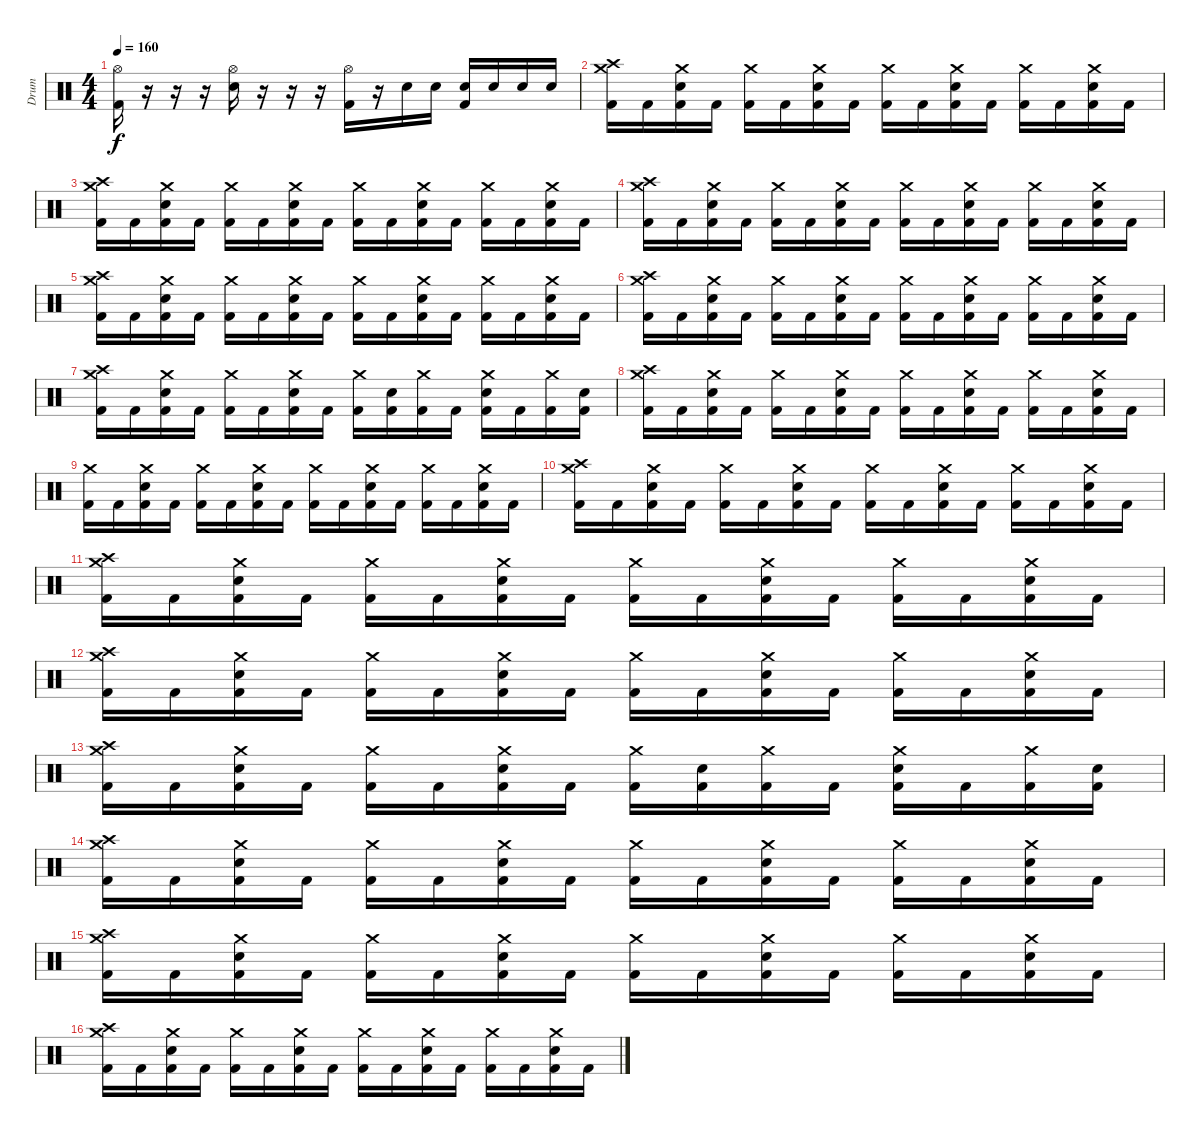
\track ("Drum" "Drum") {instrument percussion}
\staff {score}
\articulation defaults
\ts (4 4)
\tempo 160
\clef neutral
\ks c
("Hi-Hat (open)" "Kick (hit) 2").16{dy f} r.16 r.16 r.16 ("Hi-Hat (open)" "Electric Snare (hit)").16 r.16 r.16 r.16 ("Hi-Hat (open)" "Kick (hit) 2").16 r.16 "Electric Snare (hit)".16 "Electric Snare (hit)".16 ("Kick (hit) 2" "Electric Snare (hit)").16 "Electric Snare (hit)".16 "Electric Snare (hit)".16 "Electric Snare (hit)".16 |
("Crash high (hit)" "Crash medium (hit)" "Kick (hit) 2").16 "Kick (hit) 2".16 ("Crash medium (hit)" "Kick (hit) 2" "Electric Snare (hit)").16 "Kick (hit) 2".16 ("Crash medium (hit)" "Kick (hit) 2").16 "Kick (hit) 2".16 ("Crash medium (hit)" "Kick (hit) 2" "Electric Snare (hit)").16 "Kick (hit) 2".16 ("Crash medium (hit)" "Kick (hit) 2").16 "Kick (hit) 2".16 ("Crash medium (hit)" "Kick (hit) 2" "Electric Snare (hit)").16 "Kick (hit) 2".16 ("Crash medium (hit)" "Kick (hit) 2").16 "Kick (hit) 2".16 ("Crash medium (hit)" "Kick (hit) 2" "Electric Snare (hit)").16 "Kick (hit) 2".16 |
("Crash high (hit)" "Crash medium (hit)" "Kick (hit) 2").16 "Kick (hit) 2".16 ("Crash medium (hit)" "Kick (hit) 2" "Electric Snare (hit)").16 "Kick (hit) 2".16 ("Crash medium (hit)" "Kick (hit) 2").16 "Kick (hit) 2".16 ("Crash medium (hit)" "Kick (hit) 2" "Electric Snare (hit)").16 "Kick (hit) 2".16 ("Crash medium (hit)" "Kick (hit) 2").16 "Kick (hit) 2".16 ("Crash medium (hit)" "Kick (hit) 2" "Electric Snare (hit)").16 "Kick (hit) 2".16 ("Crash medium (hit)" "Kick (hit) 2").16 "Kick (hit) 2".16 ("Crash medium (hit)" "Kick (hit) 2" "Electric Snare (hit)").16 "Kick (hit) 2".16 |
("Crash high (hit)" "Crash medium (hit)" "Kick (hit) 2").16 "Kick (hit) 2".16 ("Crash medium (hit)" "Kick (hit) 2" "Electric Snare (hit)").16 "Kick (hit) 2".16 ("Crash medium (hit)" "Kick (hit) 2").16 "Kick (hit) 2".16 ("Crash medium (hit)" "Kick (hit) 2" "Electric Snare (hit)").16 "Kick (hit) 2".16 ("Crash medium (hit)" "Kick (hit) 2").16 "Kick (hit) 2".16 ("Crash medium (hit)" "Kick (hit) 2" "Electric Snare (hit)").16 "Kick (hit) 2".16 ("Crash medium (hit)" "Kick (hit) 2").16 "Kick (hit) 2".16 ("Crash medium (hit)" "Kick (hit) 2" "Electric Snare (hit)").16 "Kick (hit) 2".16 |
("Crash high (hit)" "Crash medium (hit)" "Kick (hit) 2").16 "Kick (hit) 2".16 ("Crash medium (hit)" "Kick (hit) 2" "Electric Snare (hit)").16 "Kick (hit) 2".16 ("Crash medium (hit)" "Kick (hit) 2").16 "Kick (hit) 2".16 ("Crash medium (hit)" "Kick (hit) 2" "Electric Snare (hit)").16 "Kick (hit) 2".16 ("Crash medium (hit)" "Kick (hit) 2").16 "Kick (hit) 2".16 ("Crash medium (hit)" "Kick (hit) 2" "Electric Snare (hit)").16 "Kick (hit) 2".16 ("Crash medium (hit)" "Kick (hit) 2").16 "Kick (hit) 2".16 ("Crash medium (hit)" "Kick (hit) 2" "Electric Snare (hit)").16 "Kick (hit) 2".16 |
("Crash high (hit)" "Crash medium (hit)" "Kick (hit) 2").16 "Kick (hit) 2".16 ("Crash medium (hit)" "Kick (hit) 2" "Electric Snare (hit)").16 "Kick (hit) 2".16 ("Crash medium (hit)" "Kick (hit) 2").16 "Kick (hit) 2".16 ("Crash medium (hit)" "Kick (hit) 2" "Electric Snare (hit)").16 "Kick (hit) 2".16 ("Crash medium (hit)" "Kick (hit) 2").16 "Kick (hit) 2".16 ("Crash medium (hit)" "Kick (hit) 2" "Electric Snare (hit)").16 "Kick (hit) 2".16 ("Crash medium (hit)" "Kick (hit) 2").16 "Kick (hit) 2".16 ("Crash medium (hit)" "Kick (hit) 2" "Electric Snare (hit)").16 "Kick (hit) 2".16 |
("Crash high (hit)" "Crash medium (hit)" "Kick (hit) 2").16 "Kick (hit) 2".16 ("Crash medium (hit)" "Kick (hit) 2" "Electric Snare (hit)").16 "Kick (hit) 2".16 ("Crash medium (hit)" "Kick (hit) 2").16 "Kick (hit) 2".16 ("Crash medium (hit)" "Kick (hit) 2" "Electric Snare (hit)").16 "Kick (hit) 2".16 ("Crash medium (hit)" "Kick (hit) 2").16 ("Kick (hit) 2" "Electric Snare (hit)").16 ("Crash medium (hit)" "Kick (hit) 2").16 "Kick (hit) 2".16 ("Crash medium (hit)" "Kick (hit) 2" "Electric Snare (hit)").16 "Kick (hit) 2".16 ("Crash medium (hit)" "Kick (hit) 2").16 ("Kick (hit) 2" "Electric Snare (hit)").16 |
("Crash high (hit)" "Crash medium (hit)" "Kick (hit) 2").16 "Kick (hit) 2".16 ("Crash medium (hit)" "Kick (hit) 2" "Electric Snare (hit)").16 "Kick (hit) 2".16 ("Crash medium (hit)" "Kick (hit) 2").16 "Kick (hit) 2".16 ("Crash medium (hit)" "Kick (hit) 2" "Electric Snare (hit)").16 "Kick (hit) 2".16 ("Crash medium (hit)" "Kick (hit) 2").16 "Kick (hit) 2".16 ("Crash medium (hit)" "Kick (hit) 2" "Electric Snare (hit)").16 "Kick (hit) 2".16 ("Crash medium (hit)" "Kick (hit) 2").16 "Kick (hit) 2".16 ("Crash medium (hit)" "Kick (hit) 2" "Electric Snare (hit)").16 "Kick (hit) 2".16 |
("Crash medium (hit)" "Kick (hit) 2").16 "Kick (hit) 2".16 ("Crash medium (hit)" "Kick (hit) 2" "Electric Snare (hit)").16 "Kick (hit) 2".16 ("Crash medium (hit)" "Kick (hit) 2").16 "Kick (hit) 2".16 ("Crash medium (hit)" "Kick (hit) 2" "Electric Snare (hit)").16 "Kick (hit) 2".16 ("Crash medium (hit)" "Kick (hit) 2").16 "Kick (hit) 2".16 ("Crash medium (hit)" "Kick (hit) 2" "Electric Snare (hit)").16 "Kick (hit) 2".16 ("Crash medium (hit)" "Kick (hit) 2").16 "Kick (hit) 2".16 ("Crash medium (hit)" "Kick (hit) 2" "Electric Snare (hit)").16 "Kick (hit) 2".16 |
("Crash high (hit)" "Crash medium (hit)" "Kick (hit) 2").16 "Kick (hit) 2".16 ("Crash medium (hit)" "Kick (hit) 2" "Electric Snare (hit)").16 "Kick (hit) 2".16 ("Crash medium (hit)" "Kick (hit) 2").16 "Kick (hit) 2".16 ("Crash medium (hit)" "Kick (hit) 2" "Electric Snare (hit)").16 "Kick (hit) 2".16 ("Crash medium (hit)" "Kick (hit) 2").16 "Kick (hit) 2".16 ("Crash medium (hit)" "Kick (hit) 2" "Electric Snare (hit)").16 "Kick (hit) 2".16 ("Crash medium (hit)" "Kick (hit) 2").16 "Kick (hit) 2".16 ("Crash medium (hit)" "Kick (hit) 2" "Electric Snare (hit)").16 "Kick (hit) 2".16 |
("Crash high (hit)" "Crash medium (hit)" "Kick (hit) 2").16 "Kick (hit) 2".16 ("Crash medium (hit)" "Kick (hit) 2" "Electric Snare (hit)").16 "Kick (hit) 2".16 ("Crash medium (hit)" "Kick (hit) 2").16 "Kick (hit) 2".16 ("Crash medium (hit)" "Kick (hit) 2" "Electric Snare (hit)").16 "Kick (hit) 2".16 ("Crash medium (hit)" "Kick (hit) 2").16 "Kick (hit) 2".16 ("Crash medium (hit)" "Kick (hit) 2" "Electric Snare (hit)").16 "Kick (hit) 2".16 ("Crash medium (hit)" "Kick (hit) 2").16 "Kick (hit) 2".16 ("Crash medium (hit)" "Kick (hit) 2" "Electric Snare (hit)").16 "Kick (hit) 2".16 |
("Crash high (hit)" "Crash medium (hit)" "Kick (hit) 2").16 "Kick (hit) 2".16 ("Crash medium (hit)" "Kick (hit) 2" "Electric Snare (hit)").16 "Kick (hit) 2".16 ("Crash medium (hit)" "Kick (hit) 2").16 "Kick (hit) 2".16 ("Crash medium (hit)" "Kick (hit) 2" "Electric Snare (hit)").16 "Kick (hit) 2".16 ("Crash medium (hit)" "Kick (hit) 2").16 "Kick (hit) 2".16 ("Crash medium (hit)" "Kick (hit) 2" "Electric Snare (hit)").16 "Kick (hit) 2".16 ("Crash medium (hit)" "Kick (hit) 2").16 "Kick (hit) 2".16 ("Crash medium (hit)" "Kick (hit) 2" "Electric Snare (hit)").16 "Kick (hit) 2".16 |
("Crash high (hit)" "Crash medium (hit)" "Kick (hit) 2").16 "Kick (hit) 2".16 ("Crash medium (hit)" "Kick (hit) 2" "Electric Snare (hit)").16 "Kick (hit) 2".16 ("Crash medium (hit)" "Kick (hit) 2").16 "Kick (hit) 2".16 ("Crash medium (hit)" "Kick (hit) 2" "Electric Snare (hit)").16 "Kick (hit) 2".16 ("Crash medium (hit)" "Kick (hit) 2").16 ("Kick (hit) 2" "Electric Snare (hit)").16 ("Crash medium (hit)" "Kick (hit) 2").16 "Kick (hit) 2".16 ("Crash medium (hit)" "Kick (hit) 2" "Electric Snare (hit)").16 "Kick (hit) 2".16 ("Crash medium (hit)" "Kick (hit) 2").16 ("Kick (hit) 2" "Electric Snare (hit)").16 |
("Crash high (hit)" "Crash medium (hit)" "Kick (hit) 2").16 "Kick (hit) 2".16 ("Crash medium (hit)" "Kick (hit) 2" "Electric Snare (hit)").16 "Kick (hit) 2".16 ("Crash medium (hit)" "Kick (hit) 2").16 "Kick (hit) 2".16 ("Crash medium (hit)" "Kick (hit) 2" "Electric Snare (hit)").16 "Kick (hit) 2".16 ("Crash medium (hit)" "Kick (hit) 2").16 "Kick (hit) 2".16 ("Crash medium (hit)" "Kick (hit) 2" "Electric Snare (hit)").16 "Kick (hit) 2".16 ("Crash medium (hit)" "Kick (hit) 2").16 "Kick (hit) 2".16 ("Crash medium (hit)" "Kick (hit) 2" "Electric Snare (hit)").16 "Kick (hit) 2".16 |
("Crash high (hit)" "Crash medium (hit)" "Kick (hit) 2").16 "Kick (hit) 2".16 ("Crash medium (hit)" "Kick (hit) 2" "Electric Snare (hit)").16 "Kick (hit) 2".16 ("Crash medium (hit)" "Kick (hit) 2").16 "Kick (hit) 2".16 ("Crash medium (hit)" "Kick (hit) 2" "Electric Snare (hit)").16 "Kick (hit) 2".16 ("Crash medium (hit)" "Kick (hit) 2").16 "Kick (hit) 2".16 ("Crash medium (hit)" "Kick (hit) 2" "Electric Snare (hit)").16 "Kick (hit) 2".16 ("Crash medium (hit)" "Kick (hit) 2").16 "Kick (hit) 2".16 ("Crash medium (hit)" "Kick (hit) 2" "Electric Snare (hit)").16 "Kick (hit) 2".16 |
("Crash high (hit)" "Crash medium (hit)" "Kick (hit) 2").16 "Kick (hit) 2".16 ("Crash medium (hit)" "Kick (hit) 2" "Electric Snare (hit)").16 "Kick (hit) 2".16 ("Crash medium (hit)" "Kick (hit) 2").16 "Kick (hit) 2".16 ("Crash medium (hit)" "Kick (hit) 2" "Electric Snare (hit)").16 "Kick (hit) 2".16 ("Crash medium (hit)" "Kick (hit) 2").16 "Kick (hit) 2".16 ("Crash medium (hit)" "Kick (hit) 2" "Electric Snare (hit)").16 "Kick (hit) 2".16 ("Crash medium (hit)" "Kick (hit) 2").16 "Kick (hit) 2".16 ("Crash medium (hit)" "Kick (hit) 2" "Electric Snare (hit)").16 "Kick (hit) 2".16
